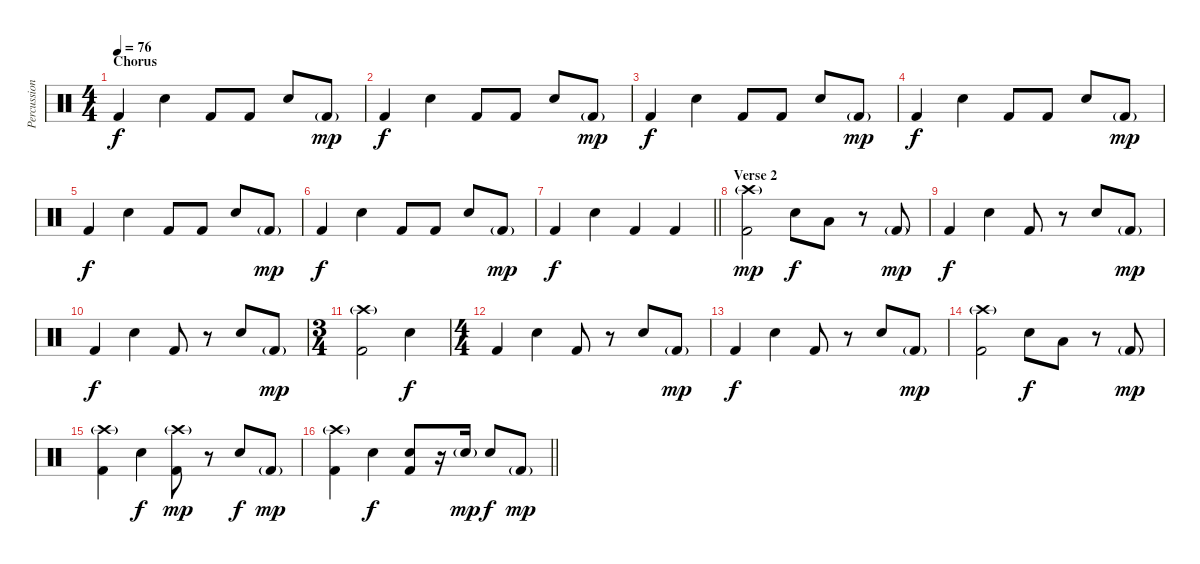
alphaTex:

\track ("Percussion" "Percussion") {instrument percussion}
\staff {score}
\articulation defaults
\ts (4 4)
\section ("" "Chorus")
\tempo 76
\clef neutral
\ks c "Kick (hit) 2".4{dy f} "Snare (hit) 2".4 "Kick (hit) 2".8 "Kick (hit) 2".8 "Snare (hit) 2".8 "Kick (hit) 2"{g}.8{dy mp}
|
"Kick (hit) 2".4{dy f} "Snare (hit) 2".4 "Kick (hit) 2".8 "Kick (hit) 2".8 "Snare (hit) 2".8 "Kick (hit) 2"{g}.8{dy mp} |
"Kick (hit) 2".4{dy f} "Snare (hit) 2".4 "Kick (hit) 2".8 "Kick (hit) 2".8 "Snare (hit) 2".8 "Kick (hit) 2"{g}.8{dy mp} |
"Kick (hit) 2".4{dy f} "Snare (hit) 2".4 "Kick (hit) 2".8 "Kick (hit) 2".8 "Snare (hit) 2".8 "Kick (hit) 2"{g}.8{dy mp} |
"Kick (hit) 2".4{dy f} "Snare (hit) 2".4 "Kick (hit) 2".8 "Kick (hit) 2".8 "Snare (hit) 2".8 "Kick (hit) 2"{g}.8{dy mp} |
"Kick (hit) 2".4{dy f} "Snare (hit) 2".4 "Kick (hit) 2".8 "Kick (hit) 2".8 "Snare (hit) 2".8 "Kick (hit) 2"{g}.8{dy mp} |
\barLineRight lightlight "Kick (hit) 2".4{dy f} "Snare (hit) 2".4 "Kick (hit) 2".4 "Kick (hit) 2".4
|
\section ("" "Verse 2")
("Crash high (hit)"{g} "Kick (hit) 2").2{dy mp} "Snare (hit) 2".8{dy f} "Low Floor Tom (hit)".8 r.8 "Kick (hit) 2"{g}.8{dy mp} |
"Kick (hit) 2".4{dy f} "Snare (hit) 2".4 "Kick (hit) 2".8 r.8 "Snare (hit) 2".8 "Kick (hit) 2"{g}.8{dy mp} |
"Kick (hit) 2".4{dy f} "Snare (hit) 2".4 "Kick (hit) 2".8 r.8 "Snare (hit) 2".8 "Kick (hit) 2"{g}.8{dy mp} |
\ts (3 4)
("Crash high (hit)"{g} "Kick (hit) 2").2 "Snare (hit) 2".4{dy f} |
\ts (4 4)
"Kick (hit) 2".4 "Snare (hit) 2".4 "Kick (hit) 2".8 r.8 "Snare (hit) 2".8 "Kick (hit) 2"{g}.8{dy mp} |
"Kick (hit) 2".4{dy f} "Snare (hit) 2".4 "Kick (hit) 2".8 r.8 "Snare (hit) 2".8 "Kick (hit) 2"{g}.8{dy mp} |
("Crash high (hit)"{g} "Kick (hit) 2").2 "Snare (hit) 2".8{dy f} "Low Floor Tom (hit)".8 r.8 "Kick (hit) 2"{g}.8{dy mp} |
("Crash high (hit)"{g} "Kick (hit) 2").4 "Snare (hit) 2".4{dy f} ("Crash high (hit)"{g} "Kick (hit) 2").8{dy mp} r.8 "Snare (hit) 2".8{dy f} "Kick (hit) 2"{g}.8{dy mp} |
\barLineRight lightlight
("Crash high (hit)"{g} "Kick (hit) 2").4 "Snare (hit) 2".4{dy f} ("Snare (hit) 2" "Kick (hit) 2").8 r.16 "Snare (hit) 2"{g}.16{dy mp} "Snare (hit) 2".8{dy f} "Kick (hit) 2"{g}.8{dy mp}
